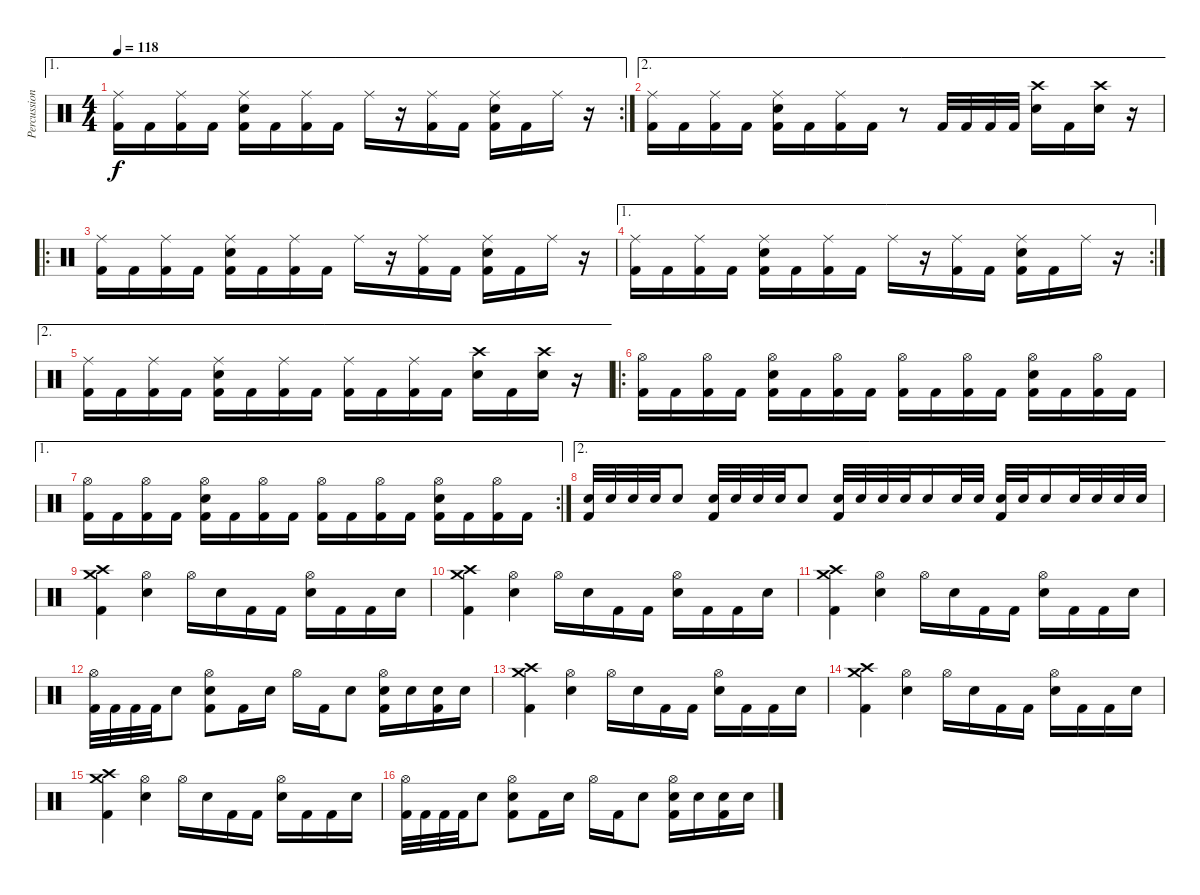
\track ("Percussion" "Percussion") {instrument percussion}
\staff {score}
\articulation defaults
\ae 1
\rc 2
\ts (4 4)
\tempo 118
\clef neutral
\ks c
("Ride (middle)" "Kick (hit) 2").16{dy f} "Kick (hit) 2".16 ("Ride (middle)" "Kick (hit) 2").16 "Kick (hit) 2".16 ("Ride (middle)" "Snare (hit) 2" "Kick (hit) 2").16 "Kick (hit) 2".16 ("Ride (middle)" "Kick (hit) 2").16 "Kick (hit) 2".16 "Ride (middle)".16 r.16 ("Ride (middle)" "Kick (hit) 2").16 "Kick (hit) 2".16 ("Ride (middle)" "Snare (hit) 2" "Kick (hit) 2").16 "Kick (hit) 2".16 "Ride (middle)".16 r.16 |
\ae 2
("Ride (middle)" "Kick (hit) 2").16 "Kick (hit) 2".16 ("Ride (middle)" "Kick (hit) 2").16 "Kick (hit) 2".16 ("Ride (middle)" "Snare (hit) 2" "Kick (hit) 2").16 "Kick (hit) 2".16 ("Ride (middle)" "Kick (hit) 2").16 "Kick (hit) 2".16 r.8 "Kick (hit) 2".32 "Kick (hit) 2".32 "Kick (hit) 2".32 "Kick (hit) 2".32 ("Crash high (hit)" "Snare (hit) 2").16 "Kick (hit) 2".16 ("Crash high (hit)" "Snare (hit) 2").16 r.16 |
\ro
("Ride (middle)" "Kick (hit) 2").16 "Kick (hit) 2".16 ("Ride (middle)" "Kick (hit) 2").16 "Kick (hit) 2".16 ("Ride (middle)" "Snare (hit) 2" "Kick (hit) 2").16 "Kick (hit) 2".16 ("Ride (middle)" "Kick (hit) 2").16 "Kick (hit) 2".16 "Ride (middle)".16 r.16 ("Ride (middle)" "Kick (hit) 2").16 "Kick (hit) 2".16 ("Ride (middle)" "Snare (hit) 2" "Kick (hit) 2").16 "Kick (hit) 2".16 "Ride (middle)".16 r.16 |
\ae 1
\rc 2
("Ride (middle)" "Kick (hit) 2").16 "Kick (hit) 2".16 ("Ride (middle)" "Kick (hit) 2").16 "Kick (hit) 2".16 ("Ride (middle)" "Snare (hit) 2" "Kick (hit) 2").16 "Kick (hit) 2".16 ("Ride (middle)" "Kick (hit) 2").16 "Kick (hit) 2".16 "Ride (middle)".16 r.16 ("Ride (middle)" "Kick (hit) 2").16 "Kick (hit) 2".16 ("Ride (middle)" "Snare (hit) 2" "Kick (hit) 2").16 "Kick (hit) 2".16 "Ride (middle)".16 r.16 |
\ae 2
("Ride (middle)" "Kick (hit) 2").16 "Kick (hit) 2".16 ("Ride (middle)" "Kick (hit) 2").16 "Kick (hit) 2".16 ("Ride (middle)" "Snare (hit) 2" "Kick (hit) 2").16 "Kick (hit) 2".16 ("Ride (middle)" "Kick (hit) 2").16 "Kick (hit) 2".16 ("Ride (middle)" "Kick (hit) 2").16 "Kick (hit) 2".16 ("Ride (middle)" "Kick (hit) 2").16 "Kick (hit) 2".16 ("Crash high (hit)" "Snare (hit) 2").16 "Kick (hit) 2".16 ("Crash high (hit)" "Snare (hit) 2").16 r.16 |
\ro
("Hi-Hat (open)" "Kick (hit) 2").16 "Kick (hit) 2".16 ("Hi-Hat (open)" "Kick (hit) 2").16 "Kick (hit) 2".16 ("Hi-Hat (open)" "Snare (hit) 2" "Kick (hit) 2").16 "Kick (hit) 2".16 ("Hi-Hat (open)" "Kick (hit) 2").16 "Kick (hit) 2".16 ("Hi-Hat (open)" "Kick (hit) 2").16 "Kick (hit) 2".16 ("Hi-Hat (open)" "Kick (hit) 2").16 "Kick (hit) 2".16 ("Hi-Hat (open)" "Snare (hit) 2" "Kick (hit) 2").16 "Kick (hit) 2".16 ("Hi-Hat (open)" "Kick (hit) 2").16 "Kick (hit) 2".16 |
\ae 1
\rc 2
("Hi-Hat (open)" "Kick (hit) 2").16 "Kick (hit) 2".16 ("Hi-Hat (open)" "Kick (hit) 2").16 "Kick (hit) 2".16 ("Hi-Hat (open)" "Snare (hit) 2" "Kick (hit) 2").16 "Kick (hit) 2".16 ("Hi-Hat (open)" "Kick (hit) 2").16 "Kick (hit) 2".16 ("Hi-Hat (open)" "Kick (hit) 2").16 "Kick (hit) 2".16 ("Hi-Hat (open)" "Kick (hit) 2").16 "Kick (hit) 2".16 ("Hi-Hat (open)" "Snare (hit) 2" "Kick (hit) 2").16 "Kick (hit) 2".16 ("Hi-Hat (open)" "Kick (hit) 2").16 "Kick (hit) 2".16 |
\ae 2
("Snare (hit) 2" "Kick (hit) 2").32 "Snare (hit) 2".32 "Snare (hit) 2".32 "Snare (hit) 2".32 "Snare (hit) 2".8 ("Snare (hit) 2" "Kick (hit) 2").32 "Snare (hit) 2".32 "Snare (hit) 2".32 "Snare (hit) 2".32 "Snare (hit) 2".8 ("Snare (hit) 2" "Kick (hit) 2").32 "Snare (hit) 2".32 "Snare (hit) 2".32 "Snare (hit) 2".32 "Snare (hit) 2".16 "Snare (hit) 2".32 "Snare (hit) 2".32 ("Snare (hit) 2" "Kick (hit) 2").32 "Snare (hit) 2".32 "Snare (hit) 2".16 "Snare (hit) 2".32 "Snare (hit) 2".32 "Snare (hit) 2".32 "Snare (hit) 2".32 |
("Crash medium (hit)" "Crash high (hit)" "Kick (hit) 2").4 ("Hi-Hat (open)" "Snare (hit) 2").4 "Hi-Hat (open)".16 "Snare (hit) 2".16 "Kick (hit) 2".16 "Kick (hit) 2".16 ("Hi-Hat (open)" "Snare (hit) 2").16 "Kick (hit) 2".16 "Kick (hit) 2".16 "Snare (hit) 2".16 |
("Crash medium (hit)" "Crash high (hit)" "Kick (hit) 2").4 ("Hi-Hat (open)" "Snare (hit) 2").4 "Hi-Hat (open)".16 "Snare (hit) 2".16 "Kick (hit) 2".16 "Kick (hit) 2".16 ("Hi-Hat (open)" "Snare (hit) 2").16 "Kick (hit) 2".16 "Kick (hit) 2".16 "Snare (hit) 2".16 |
("Crash medium (hit)" "Crash high (hit)" "Kick (hit) 2").4 ("Hi-Hat (open)" "Snare (hit) 2").4 "Hi-Hat (open)".16 "Snare (hit) 2".16 "Kick (hit) 2".16 "Kick (hit) 2".16 ("Hi-Hat (open)" "Snare (hit) 2").16 "Kick (hit) 2".16 "Kick (hit) 2".16 "Snare (hit) 2".16 |
("Hi-Hat (open)" "Kick (hit) 2").32 "Kick (hit) 2".32 "Kick (hit) 2".32 "Kick (hit) 2".32 "Snare (hit) 2".8 ("Hi-Hat (open)" "Snare (hit) 2" "Kick (hit) 2").8 "Kick (hit) 2".16 "Snare (hit) 2".16 "Hi-Hat (open)".16 "Kick (hit) 2".16 "Snare (hit) 2".8 ("Hi-Hat (open)" "Snare (hit) 2" "Kick (hit) 2").16 "Snare (hit) 2".16 ("Snare (hit) 2" "Kick (hit) 2").16 "Snare (hit) 2".16 |
("Crash medium (hit)" "Crash high (hit)" "Kick (hit) 2").4 ("Hi-Hat (open)" "Snare (hit) 2").4 "Hi-Hat (open)".16 "Snare (hit) 2".16 "Kick (hit) 2".16 "Kick (hit) 2".16 ("Hi-Hat (open)" "Snare (hit) 2").16 "Kick (hit) 2".16 "Kick (hit) 2".16 "Snare (hit) 2".16 |
("Crash medium (hit)" "Crash high (hit)" "Kick (hit) 2").4 ("Hi-Hat (open)" "Snare (hit) 2").4 "Hi-Hat (open)".16 "Snare (hit) 2".16 "Kick (hit) 2".16 "Kick (hit) 2".16 ("Hi-Hat (open)" "Snare (hit) 2").16 "Kick (hit) 2".16 "Kick (hit) 2".16 "Snare (hit) 2".16 |
("Crash medium (hit)" "Crash high (hit)" "Kick (hit) 2").4 ("Hi-Hat (open)" "Snare (hit) 2").4 "Hi-Hat (open)".16 "Snare (hit) 2".16 "Kick (hit) 2".16 "Kick (hit) 2".16 ("Hi-Hat (open)" "Snare (hit) 2").16 "Kick (hit) 2".16 "Kick (hit) 2".16 "Snare (hit) 2".16 |
("Hi-Hat (open)" "Kick (hit) 2").32 "Kick (hit) 2".32 "Kick (hit) 2".32 "Kick (hit) 2".32 "Snare (hit) 2".8 ("Hi-Hat (open)" "Snare (hit) 2" "Kick (hit) 2").8 "Kick (hit) 2".16 "Snare (hit) 2".16 "Hi-Hat (open)".16 "Kick (hit) 2".16 "Snare (hit) 2".8 ("Hi-Hat (open)" "Snare (hit) 2" "Kick (hit) 2").16 "Snare (hit) 2".16 ("Snare (hit) 2" "Kick (hit) 2").16 "Snare (hit) 2".16
